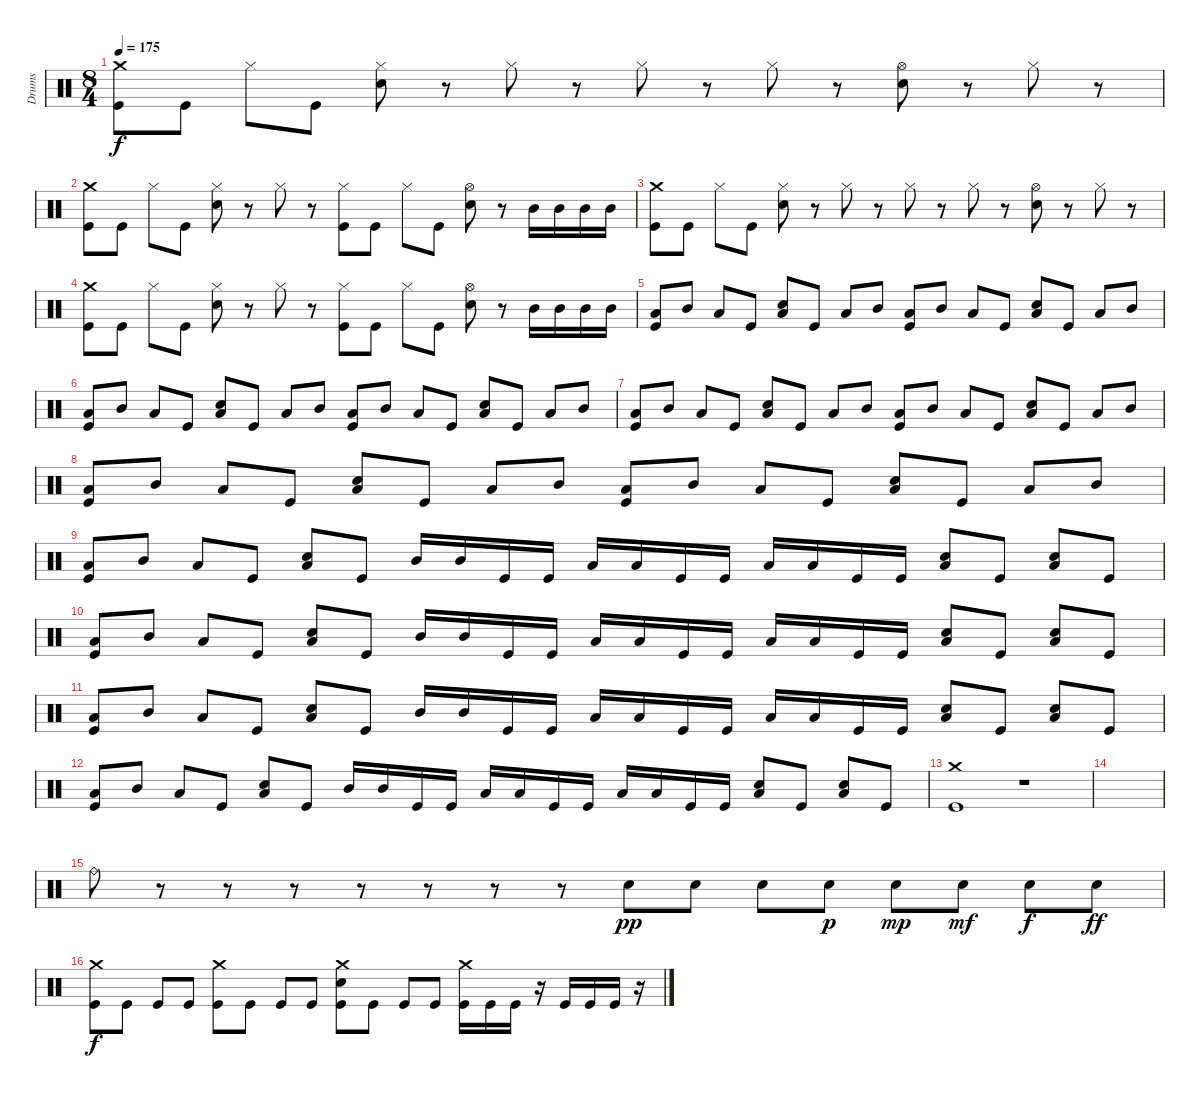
\track ("Drums" "Drums") {instrument percussion}
\staff {score}
\articulation defaults
\ts (8 4)
\tempo 175
\clef neutral
\ks c
("Crash medium (hit)" "Kick (hit)").8{dy f} "Kick (hit)".8 "Hi-Hat (closed)".8 "Kick (hit)".8 ("Hi-Hat (closed)" "Snare (hit) 2").8 r.8 "Hi-Hat (closed)".8 r.8 "Hi-Hat (closed)".8 r.8 "Hi-Hat (closed)".8 r.8 ("Hi-Hat (open)" "Snare (hit) 2").8 r.8 "Hi-Hat (closed)".8 r.8 |
("Crash medium (hit)" "Kick (hit)").8 "Kick (hit)".8 "Hi-Hat (closed)".8 "Kick (hit)".8 ("Hi-Hat (closed)" "Snare (hit) 2").8 r.8 "Hi-Hat (closed)".8 r.8 ("Hi-Hat (closed)" "Kick (hit)").8 "Kick (hit)".8 "Hi-Hat (closed)".8 "Kick (hit)".8 ("Hi-Hat (open)" "Snare (hit) 2").8 r.8 "Mid Tom (hit)".16 "Mid Tom (hit)".16 "Mid Tom (hit)".16 "Mid Tom (hit)".16 |
("Crash medium (hit)" "Kick (hit)").8 "Kick (hit)".8 "Hi-Hat (closed)".8 "Kick (hit)".8 ("Hi-Hat (closed)" "Snare (hit) 2").8 r.8 "Hi-Hat (closed)".8 r.8 "Hi-Hat (closed)".8 r.8 "Hi-Hat (closed)".8 r.8 ("Hi-Hat (open)" "Snare (hit) 2").8 r.8 "Hi-Hat (closed)".8 r.8 |
("Crash medium (hit)" "Kick (hit)").8 "Kick (hit)".8 "Hi-Hat (closed)".8 "Kick (hit)".8 ("Hi-Hat (closed)" "Snare (hit) 2").8 r.8 "Hi-Hat (closed)".8 r.8 ("Hi-Hat (closed)" "Kick (hit)").8 "Kick (hit)".8 "Hi-Hat (closed)".8 "Kick (hit)".8 ("Hi-Hat (open)" "Snare (hit) 2").8 r.8 "Mid Tom (hit)".16 "Mid Tom (hit)".16 "Mid Tom (hit)".16 "Mid Tom (hit)".16 |
("Low Floor Tom (hit)" "Kick (hit)").8 "Mid Tom (hit)".8 "Low Floor Tom (hit)".8 "Kick (hit)".8 ("Low Floor Tom (hit)" "Snare (hit) 2").8 "Kick (hit)".8 "Low Floor Tom (hit)".8 "Mid Tom (hit)".8 ("Low Floor Tom (hit)" "Kick (hit)").8 "Mid Tom (hit)".8 "Low Floor Tom (hit)".8 "Kick (hit)".8 ("Low Floor Tom (hit)" "Snare (hit) 2").8 "Kick (hit)".8 "Low Floor Tom (hit)".8 "Mid Tom (hit)".8 |
("Low Floor Tom (hit)" "Kick (hit)").8 "Mid Tom (hit)".8 "Low Floor Tom (hit)".8 "Kick (hit)".8 ("Low Floor Tom (hit)" "Snare (hit) 2").8 "Kick (hit)".8 "Low Floor Tom (hit)".8 "Mid Tom (hit)".8 ("Low Floor Tom (hit)" "Kick (hit)").8 "Mid Tom (hit)".8 "Low Floor Tom (hit)".8 "Kick (hit)".8 ("Low Floor Tom (hit)" "Snare (hit) 2").8 "Kick (hit)".8 "Low Floor Tom (hit)".8 "Mid Tom (hit)".8 |
("Low Floor Tom (hit)" "Kick (hit)").8 "Mid Tom (hit)".8 "Low Floor Tom (hit)".8 "Kick (hit)".8 ("Low Floor Tom (hit)" "Snare (hit) 2").8 "Kick (hit)".8 "Low Floor Tom (hit)".8 "Mid Tom (hit)".8 ("Low Floor Tom (hit)" "Kick (hit)").8 "Mid Tom (hit)".8 "Low Floor Tom (hit)".8 "Kick (hit)".8 ("Low Floor Tom (hit)" "Snare (hit) 2").8 "Kick (hit)".8 "Low Floor Tom (hit)".8 "Mid Tom (hit)".8 |
("Low Floor Tom (hit)" "Kick (hit)").8 "Mid Tom (hit)".8 "Low Floor Tom (hit)".8 "Kick (hit)".8 ("Low Floor Tom (hit)" "Snare (hit) 2").8 "Kick (hit)".8 "Low Floor Tom (hit)".8 "Mid Tom (hit)".8 ("Low Floor Tom (hit)" "Kick (hit)").8 "Mid Tom (hit)".8 "Low Floor Tom (hit)".8 "Kick (hit)".8 ("Low Floor Tom (hit)" "Snare (hit) 2").8 "Kick (hit)".8 "Low Floor Tom (hit)".8 "Mid Tom (hit)".8 |
("Low Floor Tom (hit)" "Kick (hit)").8 "Mid Tom (hit)".8 "Low Floor Tom (hit)".8 "Kick (hit)".8 ("Low Floor Tom (hit)" "Snare (hit) 2").8 "Kick (hit)".8 "Mid Tom (hit)".16 "Mid Tom (hit)".16 "Kick (hit)".16 "Kick (hit)".16 "Low Floor Tom (hit)".16 "Low Floor Tom (hit)".16 "Kick (hit)".16 "Kick (hit)".16 "Low Floor Tom (hit)".16 "Low Floor Tom (hit)".16 "Kick (hit)".16 "Kick (hit)".16 ("Low Floor Tom (hit)" "Snare (hit) 2").8 "Kick (hit)".8 ("Low Floor Tom (hit)" "Snare (hit) 2").8 "Kick (hit)".8 |
("Low Floor Tom (hit)" "Kick (hit)").8 "Mid Tom (hit)".8 "Low Floor Tom (hit)".8 "Kick (hit)".8 ("Low Floor Tom (hit)" "Snare (hit) 2").8 "Kick (hit)".8 "Mid Tom (hit)".16 "Mid Tom (hit)".16 "Kick (hit)".16 "Kick (hit)".16 "Low Floor Tom (hit)".16 "Low Floor Tom (hit)".16 "Kick (hit)".16 "Kick (hit)".16 "Low Floor Tom (hit)".16 "Low Floor Tom (hit)".16 "Kick (hit)".16 "Kick (hit)".16 ("Low Floor Tom (hit)" "Snare (hit) 2").8 "Kick (hit)".8 ("Low Floor Tom (hit)" "Snare (hit) 2").8 "Kick (hit)".8 |
("Low Floor Tom (hit)" "Kick (hit)").8 "Mid Tom (hit)".8 "Low Floor Tom (hit)".8 "Kick (hit)".8 ("Low Floor Tom (hit)" "Snare (hit) 2").8 "Kick (hit)".8 "Mid Tom (hit)".16 "Mid Tom (hit)".16 "Kick (hit)".16 "Kick (hit)".16 "Low Floor Tom (hit)".16 "Low Floor Tom (hit)".16 "Kick (hit)".16 "Kick (hit)".16 "Low Floor Tom (hit)".16 "Low Floor Tom (hit)".16 "Kick (hit)".16 "Kick (hit)".16 ("Low Floor Tom (hit)" "Snare (hit) 2").8 "Kick (hit)".8 ("Low Floor Tom (hit)" "Snare (hit) 2").8 "Kick (hit)".8 |
("Low Floor Tom (hit)" "Kick (hit)").8 "Mid Tom (hit)".8 "Low Floor Tom (hit)".8 "Kick (hit)".8 ("Low Floor Tom (hit)" "Snare (hit) 2").8 "Kick (hit)".8 "Mid Tom (hit)".16 "Mid Tom (hit)".16 "Kick (hit)".16 "Kick (hit)".16 "Low Floor Tom (hit)".16 "Low Floor Tom (hit)".16 "Kick (hit)".16 "Kick (hit)".16 "Low Floor Tom (hit)".16 "Low Floor Tom (hit)".16 "Kick (hit)".16 "Kick (hit)".16 ("Low Floor Tom (hit)" "Snare (hit) 2").8 "Kick (hit)".8 ("Low Floor Tom (hit)" "Snare (hit) 2").8 "Kick (hit)".8 |
("Crash medium (hit)" "Kick (hit)").1 r.1 |
|
"Ride (bell)".8 r.8 r.8 r.8 r.8 r.8 r.8 r.8 "Snare (hit) 2".8{dy pp} "Snare (hit) 2".8 "Snare (hit) 2".8 "Snare (hit) 2".8{dy p} "Snare (hit) 2".8{dy mp} "Snare (hit) 2".8{dy mf} "Snare (hit) 2".8{dy f} "Snare (hit) 2".8{dy ff} |
("Crash medium (hit)" "Kick (hit)").8{dy f} "Kick (hit)".8 "Kick (hit)".8 "Kick (hit)".8 ("Crash medium (hit)" "Kick (hit)").8 "Kick (hit)".8 "Kick (hit)".8 "Kick (hit)".8 ("Crash medium (hit)" "Snare (hit) 2" "Kick (hit)").8 "Kick (hit)".8 "Kick (hit)".8 "Kick (hit)".8 ("Crash medium (hit)" "Kick (hit)").16 "Kick (hit)".16 "Kick (hit)".16 r.16 "Kick (hit)".16 "Kick (hit)".16 "Kick (hit)".16 r.16
